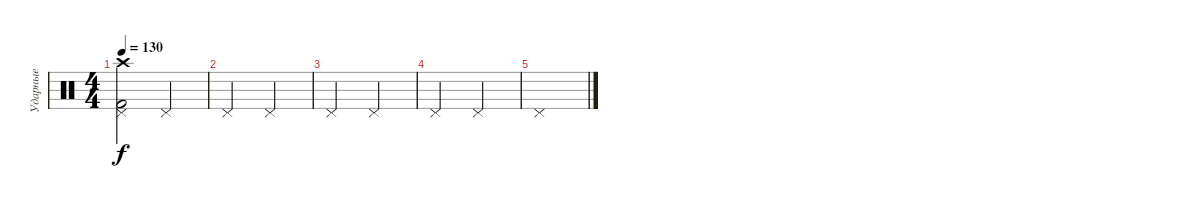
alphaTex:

\track ("Ударные" "Ударные") {instrument percussion}
\staff {score}
\articulation defaults
\ts (4 4)
\tempo 130
\clef neutral
\ks c
("Crash high (hit)" "Pedal Hi-Hat (hit)" "Kick (hit) 2").2{dy f} "Pedal Hi-Hat (hit)".2 |
"Pedal Hi-Hat (hit)".2 "Pedal Hi-Hat (hit)".2 |
"Pedal Hi-Hat (hit)".2 "Pedal Hi-Hat (hit)".2 |
"Pedal Hi-Hat (hit)".2 "Pedal Hi-Hat (hit)".2 |
"Pedal Hi-Hat (hit)".1
